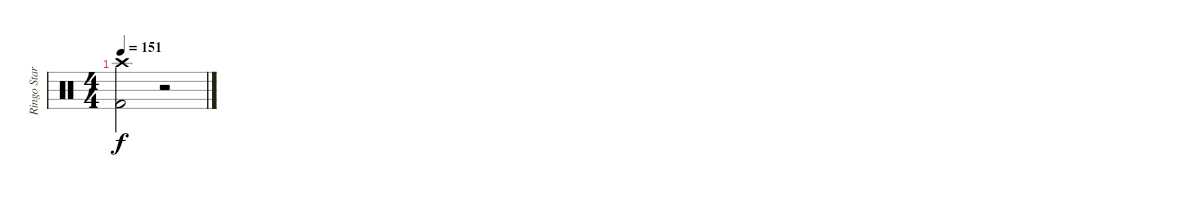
\track ("Ringo Star" "Ringo Star") {instrument percussion}
\staff {score}
\articulation defaults
\ts (4 4)
\tempo 151
\clef neutral
\ks c
("Crash high (hit)" "Kick (hit) 2").2{dy f} r.2
